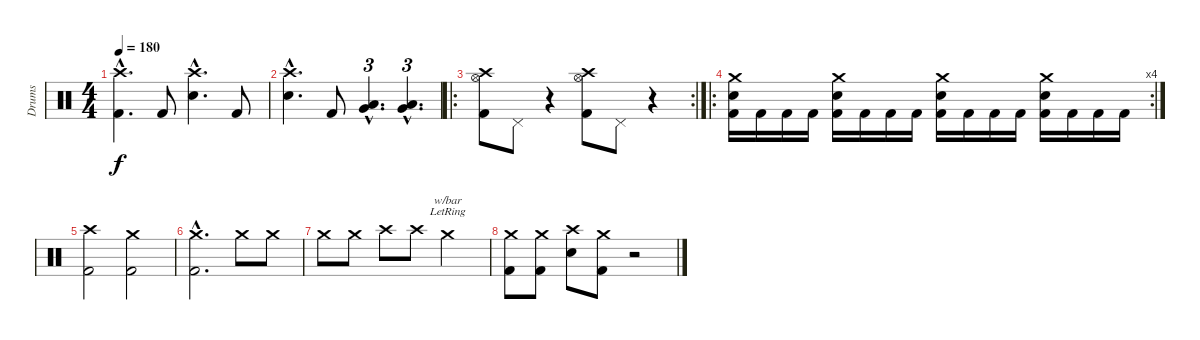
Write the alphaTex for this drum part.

\track ("Drums" "Drums") {instrument percussion}
\staff {score}
\articulation defaults
\ts (4 4)
\tempo 180
\clef neutral
\ks c
("Crash high (hit)"{hac} "Kick (hit) 2"{hac}).4{d dy f} "Kick (hit) 2".8 ("Crash high (hit)"{hac} "Electric Snare (hit)"{hac}).4{d} "Kick (hit) 2".8 |
("Crash high (hit)"{hac} "Electric Snare (hit)"{hac}).4{d} "Kick (hit) 2".8 ("Very Low Tom (hit)"{hac} "Low Floor Tom (hit)"{hac}).4{d tu (3 2)} ("Very Low Tom (hit)"{hac} "Low Floor Tom (hit)"{hac}).4{d tu (3 2)} |
\ro
\rc 2
("Hi-Hat (open)" "Crash high (hit)" "Kick (hit) 2").8 "Pedal Hi-Hat (hit)".8 r.4 ("Hi-Hat (open)" "Crash high (hit)" "Kick (hit) 2").8 "Pedal Hi-Hat (hit)".8 r.4 |
\ro
\rc 4
("Crash medium (hit)" "Electric Snare (hit)" "Kick (hit) 2").16 "Kick (hit) 2".16 "Kick (hit) 2".16 "Kick (hit) 2".16 ("Crash medium (hit)" "Electric Snare (hit)" "Kick (hit) 2").16 "Kick (hit) 2".16 "Kick (hit) 2".16 "Kick (hit) 2".16 ("Crash medium (hit)" "Electric Snare (hit)" "Kick (hit) 2").16 "Kick (hit) 2".16 "Kick (hit) 2".16 "Kick (hit) 2".16 ("Crash medium (hit)" "Electric Snare (hit)" "Kick (hit) 2").16 "Kick (hit) 2".16 "Kick (hit) 2".16 "Kick (hit) 2".16 |
("Crash high (hit)" "Kick (hit) 2").2 ("Crash medium (hit)" "Kick (hit) 2").2 |
("Crash medium (hit)"{hac} "Kick (hit) 2"{hac}).2{d} "Crash medium (hit)".8 "Crash medium (hit)".8 |
"Crash medium (hit)".8 "Crash medium (hit)".8 "Crash high (hit)".8 "Crash high (hit)".8 "Crash medium (hit)"{lr}.2{tbe (custom default 0 -12 15 -10 46 -6 55 -4 60 0)} |
("Crash medium (hit)" "Kick (hit) 2").8 ("Crash medium (hit)" "Kick (hit) 2").8 ("Crash high (hit)" "Electric Snare (hit)").8 ("Crash medium (hit)" "Kick (hit) 2").8 r.2
